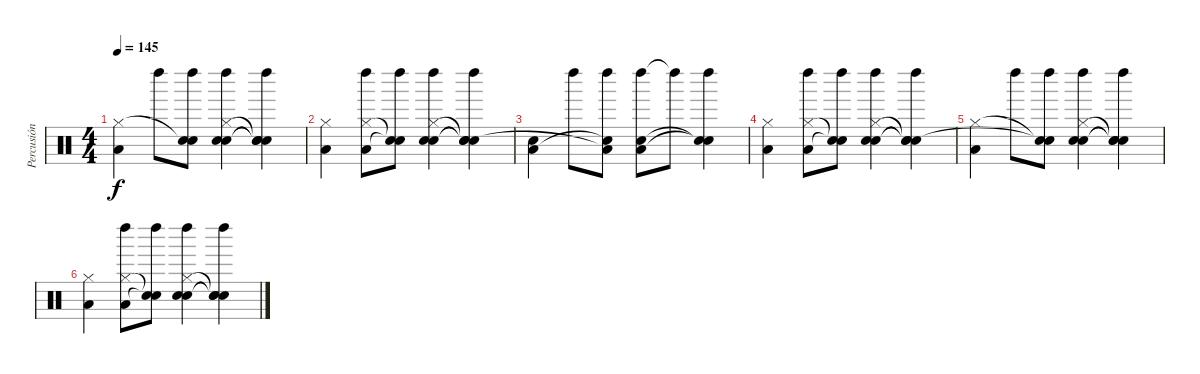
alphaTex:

\track ("Percusión" "Percusión") {instrument percussion}
\staff {score}
\articulation defaults
\ts (4 4)
\tempo 145
\clef neutral
\ks c
("Low Floor Tom (hit)" "Hi-Hat (closed)").4{dy f} "Left Maraca (hit)".8 ("Left Maraca (hit)" "Snare (hit)"{t} "Snare (hit)"{t}).8 ("Left Maraca (hit)" "Electric Snare (hit)" "Hi-Hat (closed)" "Snare (hit) 2").4 ("Left Maraca (hit)" "Snare (hit)"{t} "Snare (hit)"{t} "Snare (hit)"{t}).4 |
("Low Floor Tom (hit)" "Hi-Hat (closed)").4 ("Left Maraca (hit)" "Low Floor Tom (hit)" "Hi-Hat (closed)").8 ("Left Maraca (hit)" "Snare (hit)"{t} "Snare (hit)"{t}).8 ("Left Maraca (hit)" "Electric Snare (hit)" "Hi-Hat (closed)" "Snare (hit) 2").4 ("Left Maraca (hit)" "Snare (hit)"{t} "Snare (hit)"{t} "Snare (hit)"{t}).4 |
("Snare (hit) 2" "Low Floor Tom (hit)").4 "Left Maraca (hit)".8 ("Left Maraca (hit)" "Snare (hit)"{t} "Low Floor Tom (hit)"{t}).8 ("Left Maraca (hit)" "Snare (hit) 2" "Low Floor Tom (hit)").8 "Left Maraca (hit)"{t}.8 ("Left Maraca (hit)" "Snare (hit)"{t} "Snare (hit)"{t}).4 |
("Low Floor Tom (hit)" "Hi-Hat (closed)").4 ("Left Maraca (hit)" "Low Floor Tom (hit)" "Hi-Hat (closed)").8 ("Left Maraca (hit)" "Snare (hit)"{t} "Snare (hit)"{t}).8 ("Left Maraca (hit)" "Electric Snare (hit)" "Hi-Hat (closed)" "Snare (hit) 2").4 ("Left Maraca (hit)" "Snare (hit)"{t} "Snare (hit)"{t} "Snare (hit)"{t}).4 |
("Low Floor Tom (hit)" "Hi-Hat (closed)").4 "Left Maraca (hit)".8 ("Left Maraca (hit)" "Snare (hit)"{t} "Snare (hit)"{t}).8 ("Left Maraca (hit)" "Electric Snare (hit)" "Hi-Hat (closed)" "Snare (hit) 2").4 ("Left Maraca (hit)" "Snare (hit)"{t} "Snare (hit)"{t} "Snare (hit)"{t}).4 |
("Low Floor Tom (hit)" "Hi-Hat (closed)").4 ("Left Maraca (hit)" "Low Floor Tom (hit)" "Hi-Hat (closed)").8 ("Left Maraca (hit)" "Snare (hit)"{t} "Snare (hit)"{t}).8 ("Left Maraca (hit)" "Electric Snare (hit)" "Hi-Hat (closed)" "Snare (hit) 2").4 ("Left Maraca (hit)" "Snare (hit)"{t} "Snare (hit)"{t} "Snare (hit)"{t}).4
